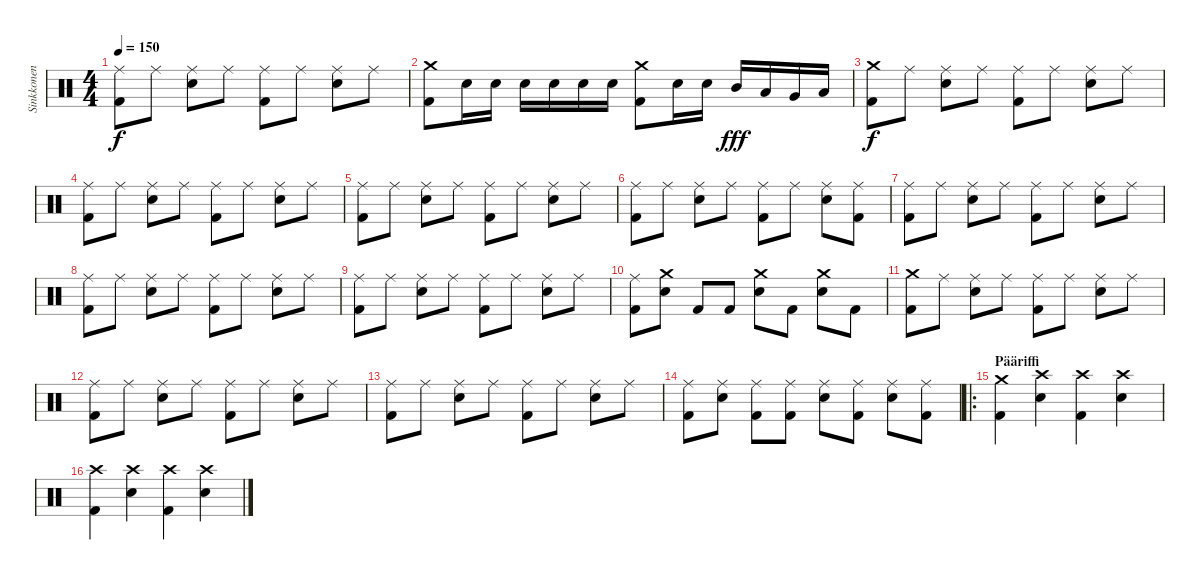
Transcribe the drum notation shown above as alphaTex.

\track ("Sinkkonen" "Sinkkonen") {instrument percussion}
\staff {score}
\articulation defaults
\ts (4 4)
\tempo 150
\clef neutral
\ks c
("Kick (hit) 2" "Ride (middle)").8{dy f} "Ride (middle)".8 ("Ride (middle)" "Snare (hit) 2").8 "Ride (middle)".8 ("Kick (hit) 2" "Ride (middle)").8 "Ride (middle)".8 ("Ride (middle)" "Snare (hit) 2").8 "Ride (middle)".8 |
("Kick (hit) 2" "Crash medium (hit)").8 "Snare (hit) 2".16 "Snare (hit) 2".16 "Snare (hit) 2".16 "Snare (hit) 2".16 "Snare (hit) 2".16 "Snare (hit) 2".16 ("Kick (hit) 2" "Crash medium (hit)").8 "Snare (hit) 2".16 "Snare (hit) 2".16 "Mid Tom (hit)".16{dy fff} "Low Tom (hit)".16 "Very Low Tom (hit)".16 "Low Floor Tom (hit)".16 |
("Kick (hit) 2" "Crash medium (hit)").8{dy f} "Ride (middle)".8 ("Ride (middle)" "Snare (hit) 2").8 "Ride (middle)".8 ("Kick (hit) 2" "Ride (middle)").8 "Ride (middle)".8 ("Ride (middle)" "Snare (hit) 2").8 "Ride (middle)".8 |
("Kick (hit) 2" "Ride (middle)").8 "Ride (middle)".8 ("Ride (middle)" "Snare (hit) 2").8 "Ride (middle)".8 ("Kick (hit) 2" "Ride (middle)").8 "Ride (middle)".8 ("Ride (middle)" "Snare (hit) 2").8 "Ride (middle)".8 |
("Kick (hit) 2" "Ride (middle)").8 "Ride (middle)".8 ("Ride (middle)" "Snare (hit) 2").8 "Ride (middle)".8 ("Kick (hit) 2" "Ride (middle)").8 "Ride (middle)".8 ("Ride (middle)" "Snare (hit) 2").8 "Ride (middle)".8 |
("Kick (hit) 2" "Ride (middle)").8 "Ride (middle)".8 ("Ride (middle)" "Snare (hit) 2").8 "Ride (middle)".8 ("Kick (hit) 2" "Ride (middle)").8 "Ride (middle)".8 ("Ride (middle)" "Snare (hit) 2").8 ("Kick (hit) 2" "Ride (middle)").8 |
("Kick (hit) 2" "Ride (middle)").8 "Ride (middle)".8 ("Ride (middle)" "Snare (hit) 2").8 "Ride (middle)".8 ("Kick (hit) 2" "Ride (middle)").8 "Ride (middle)".8 ("Ride (middle)" "Snare (hit) 2").8 "Ride (middle)".8 |
("Kick (hit) 2" "Ride (middle)").8 "Ride (middle)".8 ("Ride (middle)" "Snare (hit) 2").8 "Ride (middle)".8 ("Kick (hit) 2" "Ride (middle)").8 "Ride (middle)".8 ("Ride (middle)" "Snare (hit) 2").8 "Ride (middle)".8 |
("Kick (hit) 2" "Ride (middle)").8 "Ride (middle)".8 ("Ride (middle)" "Snare (hit) 2").8 "Ride (middle)".8 ("Kick (hit) 2" "Ride (middle)").8 "Ride (middle)".8 ("Ride (middle)" "Snare (hit) 2").8 "Ride (middle)".8 |
("Kick (hit) 2" "Ride (middle)").8 ("Crash medium (hit)" "Snare (hit) 2").8 "Kick (hit) 2".8 "Kick (hit) 2".8 ("Crash medium (hit)" "Snare (hit) 2").8 "Kick (hit) 2".8 ("Crash medium (hit)" "Snare (hit) 2").8 "Kick (hit) 2".8 |
("Kick (hit) 2" "Crash medium (hit)").8 "Ride (middle)".8 ("Ride (middle)" "Snare (hit) 2").8 "Ride (middle)".8 ("Kick (hit) 2" "Ride (middle)").8 "Ride (middle)".8 ("Ride (middle)" "Snare (hit) 2").8 "Ride (middle)".8 |
("Kick (hit) 2" "Ride (middle)").8 "Ride (middle)".8 ("Ride (middle)" "Snare (hit) 2").8 "Ride (middle)".8 ("Kick (hit) 2" "Ride (middle)").8 "Ride (middle)".8 ("Ride (middle)" "Snare (hit) 2").8 "Ride (middle)".8 |
("Kick (hit) 2" "Ride (middle)").8 "Ride (middle)".8 ("Ride (middle)" "Snare (hit) 2").8 "Ride (middle)".8 ("Kick (hit) 2" "Ride (middle)").8 "Ride (middle)".8 ("Ride (middle)" "Snare (hit) 2").8 "Ride (middle)".8 |
("Kick (hit) 2" "Ride (middle)").8 ("Ride (middle)" "Snare (hit) 2").8 ("Kick (hit) 2" "Ride (middle)").8 ("Kick (hit) 2" "Ride (middle)").8 ("Ride (middle)" "Snare (hit) 2").8 ("Kick (hit) 2" "Ride (middle)").8 ("Ride (middle)" "Snare (hit) 2").8 ("Kick (hit) 2" "Ride (middle)").8 |
\ro
\section ("" "Pääriffi")
("Kick (hit) 2" "Crash medium (hit)").4 ("Crash high (hit)" "Snare (hit) 2").4 ("Kick (hit) 2" "Crash high (hit)").4 ("Crash high (hit)" "Snare (hit) 2").4 |
("Kick (hit) 2" "Crash high (hit)").4 ("Crash high (hit)" "Snare (hit) 2").4 ("Kick (hit) 2" "Crash high (hit)").4 ("Crash high (hit)" "Snare (hit) 2").4
